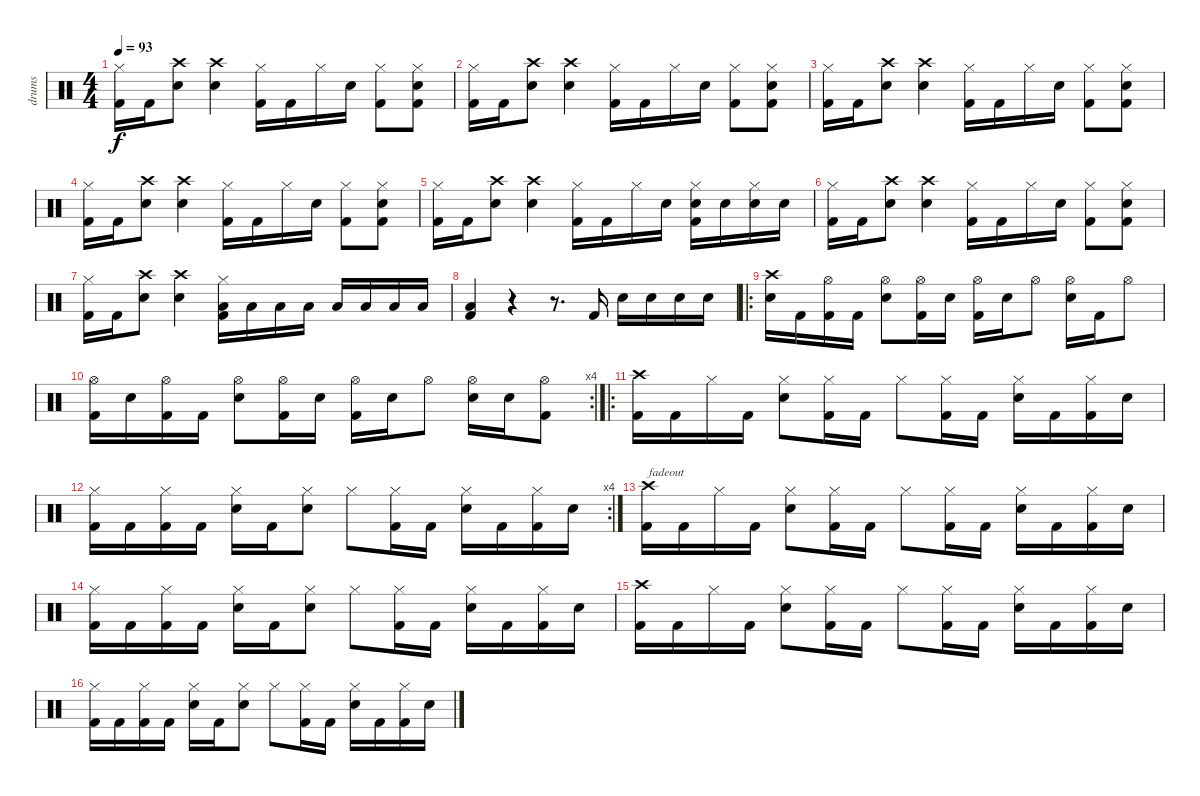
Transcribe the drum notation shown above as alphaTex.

\track ("drums" "drums") {instrument percussion}
\staff {score}
\articulation defaults
\ts (4 4)
\tempo 93
\clef neutral
\ks c
("Hi-Hat (closed)" "Kick (hit) 2").16{dy f} "Kick (hit) 2".16 ("Crash high (hit)" "Electric Snare (hit)").8 ("Crash high (hit)" "Electric Snare (hit)").4 ("Hi-Hat (closed)" "Kick (hit) 2").16 "Kick (hit) 2".16 "Hi-Hat (closed)".16 "Electric Snare (hit)".16 ("Hi-Hat (closed)" "Kick (hit) 2").8 ("Hi-Hat (closed)" "Electric Snare (hit)" "Kick (hit) 2").8 |
("Hi-Hat (closed)" "Kick (hit) 2").16 "Kick (hit) 2".16 ("Crash high (hit)" "Electric Snare (hit)").8 ("Crash high (hit)" "Electric Snare (hit)").4 ("Hi-Hat (closed)" "Kick (hit) 2").16 "Kick (hit) 2".16 "Hi-Hat (closed)".16 "Electric Snare (hit)".16 ("Hi-Hat (closed)" "Kick (hit) 2").8 ("Hi-Hat (closed)" "Electric Snare (hit)" "Kick (hit) 2").8 |
("Hi-Hat (closed)" "Kick (hit) 2").16 "Kick (hit) 2".16 ("Crash high (hit)" "Electric Snare (hit)").8 ("Crash high (hit)" "Electric Snare (hit)").4 ("Hi-Hat (closed)" "Kick (hit) 2").16 "Kick (hit) 2".16 "Hi-Hat (closed)".16 "Electric Snare (hit)".16 ("Hi-Hat (closed)" "Kick (hit) 2").8 ("Hi-Hat (closed)" "Electric Snare (hit)" "Kick (hit) 2").8 |
("Hi-Hat (closed)" "Kick (hit) 2").16 "Kick (hit) 2".16 ("Crash high (hit)" "Electric Snare (hit)").8 ("Crash high (hit)" "Electric Snare (hit)").4 ("Hi-Hat (closed)" "Kick (hit) 2").16 "Kick (hit) 2".16 "Hi-Hat (closed)".16 "Electric Snare (hit)".16 ("Hi-Hat (closed)" "Kick (hit) 2").8 ("Hi-Hat (closed)" "Electric Snare (hit)" "Kick (hit) 2").8 |
("Hi-Hat (closed)" "Kick (hit) 2").16 "Kick (hit) 2".16 ("Crash high (hit)" "Electric Snare (hit)").8 ("Crash high (hit)" "Electric Snare (hit)").4 ("Hi-Hat (closed)" "Kick (hit) 2").16 "Kick (hit) 2".16 "Hi-Hat (closed)".16 "Electric Snare (hit)".16 ("Hi-Hat (closed)" "Electric Snare (hit)" "Kick (hit) 2").16 "Electric Snare (hit)".16 ("Hi-Hat (closed)" "Electric Snare (hit)").16 "Electric Snare (hit)".16 |
("Hi-Hat (closed)" "Kick (hit) 2").16 "Kick (hit) 2".16 ("Crash high (hit)" "Electric Snare (hit)").8 ("Crash high (hit)" "Electric Snare (hit)").4 ("Hi-Hat (closed)" "Kick (hit) 2").16 "Kick (hit) 2".16 "Hi-Hat (closed)".16 "Electric Snare (hit)".16 ("Hi-Hat (closed)" "Kick (hit) 2").8 ("Hi-Hat (closed)" "Electric Snare (hit)" "Kick (hit) 2").8 |
("Hi-Hat (closed)" "Kick (hit) 2").16 "Kick (hit) 2".16 ("Crash high (hit)" "Electric Snare (hit)").8 ("Crash high (hit)" "Electric Snare (hit)").4 ("Hi-Hat (closed)" "Low Floor Tom (hit)" "Kick (hit) 2").16 "Low Floor Tom (hit)".16 "Low Floor Tom (hit)".16 "Low Floor Tom (hit)".16 "Low Floor Tom (hit)".16 "Low Floor Tom (hit)".16 "Low Floor Tom (hit)".16 "Low Floor Tom (hit)".16 |
("Low Floor Tom (hit)" "Kick (hit) 2").4 r.4 r.8{d} "Kick (hit) 2".16 "Electric Snare (hit)".16 "Electric Snare (hit)".16 "Electric Snare (hit)".16 "Electric Snare (hit)".16 |
\ro
("Crash high (hit)" "Electric Snare (hit)").16 "Kick (hit) 2".16 ("Hi-Hat (open)" "Kick (hit) 2").16 "Kick (hit) 2".16 ("Hi-Hat (open)" "Electric Snare (hit)").8 ("Hi-Hat (open)" "Kick (hit) 2").16 "Electric Snare (hit)".16 ("Hi-Hat (open)" "Kick (hit) 2").16 "Electric Snare (hit)".16 "Hi-Hat (open)".8 ("Hi-Hat (open)" "Electric Snare (hit)").16 "Kick (hit) 2".16 "Hi-Hat (open)".8 |
\rc 4
("Hi-Hat (open)" "Kick (hit) 2").16 "Electric Snare (hit)".16 ("Hi-Hat (open)" "Kick (hit) 2").16 "Kick (hit) 2".16 ("Hi-Hat (open)" "Electric Snare (hit)").8 ("Hi-Hat (open)" "Kick (hit) 2").16 "Electric Snare (hit)".16 ("Hi-Hat (open)" "Kick (hit) 2").16 "Electric Snare (hit)".16 "Hi-Hat (open)".8 ("Hi-Hat (open)" "Electric Snare (hit)").16 "Electric Snare (hit)".16 ("Hi-Hat (open)" "Kick (hit) 2").8 |
\ro
("Crash high (hit)" "Kick (hit) 2").16 "Kick (hit) 2".16 "Hi-Hat (closed)".16 "Kick (hit) 2".16 ("Hi-Hat (closed)" "Electric Snare (hit)").8 ("Hi-Hat (closed)" "Kick (hit) 2").16 "Kick (hit) 2".16 "Hi-Hat (closed)".8 ("Hi-Hat (closed)" "Kick (hit) 2").16 "Kick (hit) 2".16 ("Hi-Hat (closed)" "Electric Snare (hit)").16 "Kick (hit) 2".16 ("Hi-Hat (closed)" "Kick (hit) 2").16 "Electric Snare (hit)".16 |
\rc 4
("Hi-Hat (closed)" "Kick (hit) 2").16 "Kick (hit) 2".16 ("Hi-Hat (closed)" "Kick (hit) 2").16 "Kick (hit) 2".16 ("Hi-Hat (closed)" "Electric Snare (hit)").16 "Kick (hit) 2".16 ("Hi-Hat (closed)" "Electric Snare (hit)").8 "Hi-Hat (closed)".8 ("Hi-Hat (closed)" "Kick (hit) 2").16 "Kick (hit) 2".16 ("Hi-Hat (closed)" "Electric Snare (hit)").16 "Kick (hit) 2".16 ("Hi-Hat (closed)" "Kick (hit) 2").16 "Electric Snare (hit)".16 |
("Crash high (hit)" "Kick (hit) 2").16{txt "fadeout"} "Kick (hit) 2".16 "Hi-Hat (closed)".16 "Kick (hit) 2".16 ("Hi-Hat (closed)" "Electric Snare (hit)").8 ("Hi-Hat (closed)" "Kick (hit) 2").16 "Kick (hit) 2".16 "Hi-Hat (closed)".8 ("Hi-Hat (closed)" "Kick (hit) 2").16 "Kick (hit) 2".16 ("Hi-Hat (closed)" "Electric Snare (hit)").16 "Kick (hit) 2".16 ("Hi-Hat (closed)" "Kick (hit) 2").16 "Electric Snare (hit)".16 |
("Hi-Hat (closed)" "Kick (hit) 2").16 "Kick (hit) 2".16 ("Hi-Hat (closed)" "Kick (hit) 2").16 "Kick (hit) 2".16 ("Hi-Hat (closed)" "Electric Snare (hit)").16 "Kick (hit) 2".16 ("Hi-Hat (closed)" "Electric Snare (hit)").8 "Hi-Hat (closed)".8 ("Hi-Hat (closed)" "Kick (hit) 2").16 "Kick (hit) 2".16 ("Hi-Hat (closed)" "Electric Snare (hit)").16 "Kick (hit) 2".16 ("Hi-Hat (closed)" "Kick (hit) 2").16 "Electric Snare (hit)".16 |
("Crash high (hit)" "Kick (hit) 2").16 "Kick (hit) 2".16 "Hi-Hat (closed)".16 "Kick (hit) 2".16 ("Hi-Hat (closed)" "Electric Snare (hit)").8 ("Hi-Hat (closed)" "Kick (hit) 2").16 "Kick (hit) 2".16 "Hi-Hat (closed)".8 ("Hi-Hat (closed)" "Kick (hit) 2").16 "Kick (hit) 2".16 ("Hi-Hat (closed)" "Electric Snare (hit)").16 "Kick (hit) 2".16 ("Hi-Hat (closed)" "Kick (hit) 2").16 "Electric Snare (hit)".16 |
("Hi-Hat (closed)" "Kick (hit) 2").16 "Kick (hit) 2".16 ("Hi-Hat (closed)" "Kick (hit) 2").16 "Kick (hit) 2".16 ("Hi-Hat (closed)" "Electric Snare (hit)").16 "Kick (hit) 2".16 ("Hi-Hat (closed)" "Electric Snare (hit)").8 "Hi-Hat (closed)".8 ("Hi-Hat (closed)" "Kick (hit) 2").16 "Kick (hit) 2".16 ("Hi-Hat (closed)" "Electric Snare (hit)").16 "Kick (hit) 2".16 ("Hi-Hat (closed)" "Kick (hit) 2").16 "Electric Snare (hit)".16
